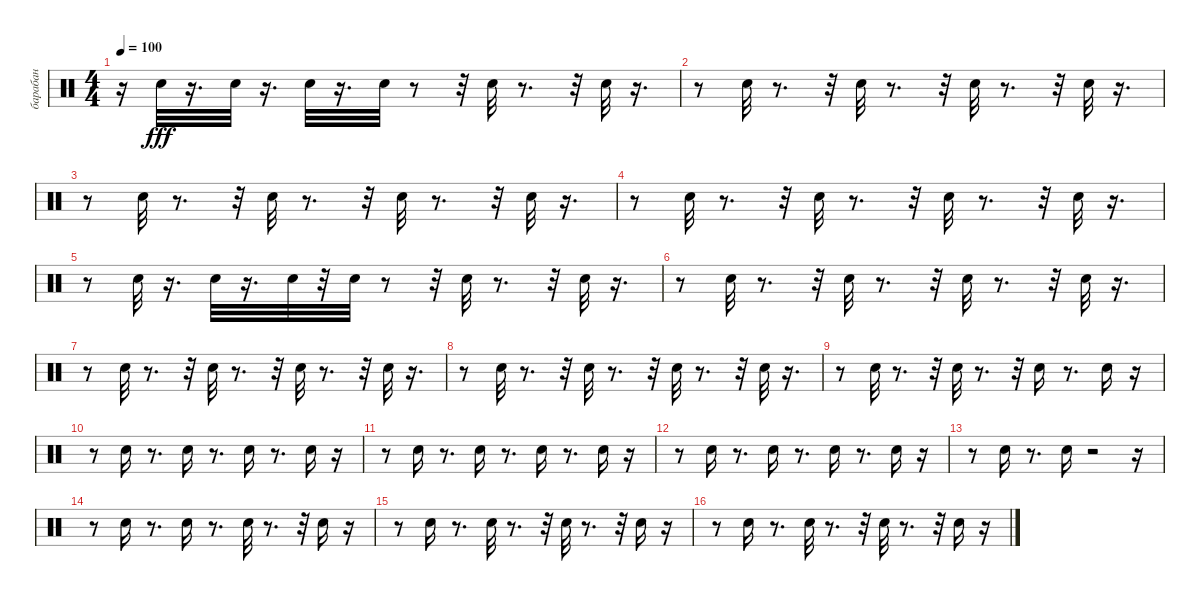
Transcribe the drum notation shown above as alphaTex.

\track ("барабан" "барабан") {instrument percussion}
\staff {score}
\articulation defaults
\ts (4 4)
\tempo 100
\clef neutral
\ks c
r.16{dy fff} "Snare (hit) 2".32 r.16{d} "Snare (hit) 2".32 r.16{d} "Snare (hit) 2".32 r.16{d} "Snare (hit) 2".32 r.8 r.32 "Snare (hit) 2".32 r.8{d} r.32 "Snare (hit) 2".32 r.16{d} |
r.8 "Snare (hit) 2".32 r.8{d} r.32 "Snare (hit) 2".32 r.8{d} r.32 "Snare (hit) 2".32 r.8{d} r.32 "Snare (hit) 2".32 r.16{d} |
r.8 "Snare (hit) 2".32 r.8{d} r.32 "Snare (hit) 2".32 r.8{d} r.32 "Snare (hit) 2".32 r.8{d} r.32 "Snare (hit) 2".32 r.16{d} |
r.8 "Snare (hit) 2".32 r.8{d} r.32 "Snare (hit) 2".32 r.8{d} r.32 "Snare (hit) 2".32 r.8{d} r.32 "Snare (hit) 2".32 r.16{d} |
r.8 "Snare (hit) 2".32 r.16{d} "Snare (hit) 2".32 r.16{d} "Snare (hit) 2".32 r.32 "Snare (hit) 2".32 r.8 r.32 "Snare (hit) 2".32 r.8{d} r.32 "Snare (hit) 2".32 r.16{d} |
r.8 "Snare (hit) 2".32 r.8{d} r.32 "Snare (hit) 2".32 r.8{d} r.32 "Snare (hit) 2".32 r.8{d} r.32 "Snare (hit) 2".32 r.16{d} |
r.8 "Snare (hit) 2".32 r.8{d} r.32 "Snare (hit) 2".32 r.8{d} r.32 "Snare (hit) 2".32 r.8{d} r.32 "Snare (hit) 2".32 r.16{d} |
r.8 "Snare (hit) 2".32 r.8{d} r.32 "Snare (hit) 2".32 r.8{d} r.32 "Snare (hit) 2".32 r.8{d} r.32 "Snare (hit) 2".32 r.16{d} |
r.8 "Snare (hit) 2".32 r.8{d} r.32 "Snare (hit) 2".32 r.8{d} r.32 "Snare (hit) 2".16 r.8{d} "Snare (hit) 2".16 r.16 |
r.8 "Snare (hit) 2".16 r.8{d} "Snare (hit) 2".16 r.8{d} "Snare (hit) 2".16 r.8{d} "Snare (hit) 2".16 r.16 |
r.8 "Snare (hit) 2".16 r.8{d} "Snare (hit) 2".16 r.8{d} "Snare (hit) 2".16 r.8{d} "Snare (hit) 2".16 r.16 |
r.8 "Snare (hit) 2".16 r.8{d} "Snare (hit) 2".16 r.8{d} "Snare (hit) 2".16 r.8{d} "Snare (hit) 2".16 r.16 |
r.8 "Snare (hit) 2".16 r.8{d} "Snare (hit) 2".16 r.2 r.16 |
r.8 "Snare (hit) 2".16 r.8{d} "Snare (hit) 2".16 r.8{d} "Snare (hit) 2".32 r.8{d} r.32 "Snare (hit) 2".16 r.16 |
r.8 "Snare (hit) 2".16 r.8{d} "Snare (hit) 2".32 r.8{d} r.32 "Snare (hit) 2".32 r.8{d} r.32 "Snare (hit) 2".16 r.16 |
r.8 "Snare (hit) 2".16 r.8{d} "Snare (hit) 2".32 r.8{d} r.32 "Snare (hit) 2".32 r.8{d} r.32 "Snare (hit) 2".16 r.16
